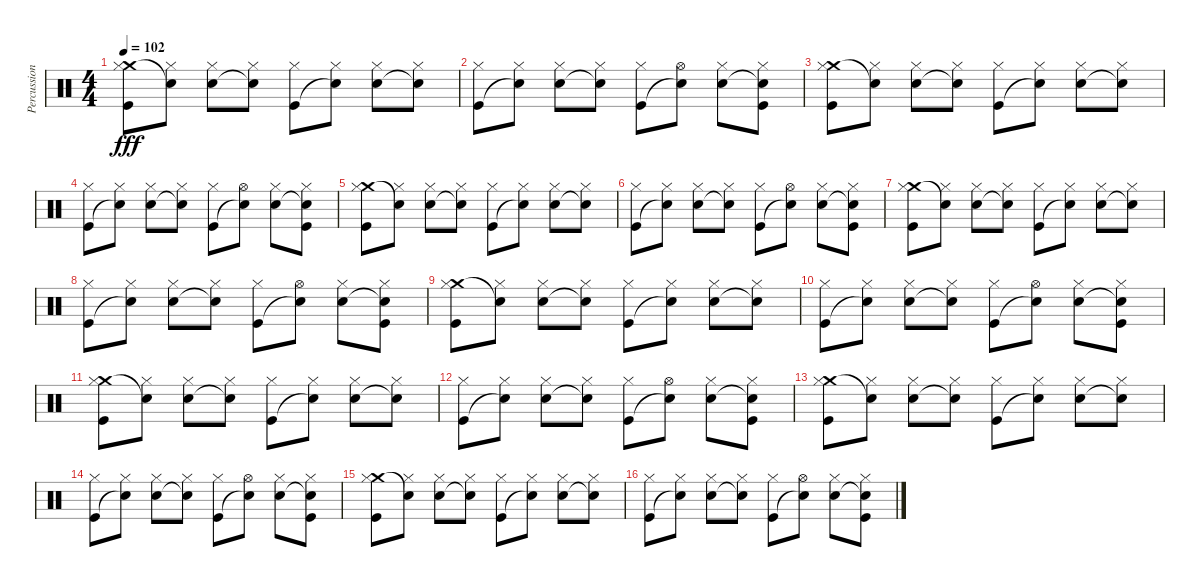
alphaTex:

\track ("Percussion" "Percussion") {instrument percussion}
\staff {score}
\articulation defaults
\ts (4 4)
\tempo 102
\clef neutral
\ks aminor
("Crash medium (hit)" "Hi-Hat (closed)" "Kick (hit)").8{dy fff} ("Hi-Hat (closed)" "Snare (hit)"{t}).8 ("Hi-Hat (closed)" "Electric Snare (hit)").8 ("Hi-Hat (closed)" "Electric Snare (hit)"{t}).8 ("Hi-Hat (closed)" "Kick (hit)").8 ("Hi-Hat (closed)" "Snare (hit)"{t}).8 ("Hi-Hat (closed)" "Electric Snare (hit)").8 ("Hi-Hat (closed)" "Snare (hit)"{t}).8 |
("Hi-Hat (closed)" "Kick (hit)").8 ("Hi-Hat (closed)" "Snare (hit)"{t}).8 ("Hi-Hat (closed)" "Electric Snare (hit)").8 ("Hi-Hat (closed)" "Electric Snare (hit)"{t}).8 ("Hi-Hat (closed)" "Kick (hit)").8 ("Hi-Hat (open)" "Snare (hit)"{t}).8 ("Hi-Hat (closed)" "Electric Snare (hit)").8 ("Hi-Hat (closed)" "Snare (hit)"{t} "Kick (hit)").8 |
("Crash medium (hit)" "Hi-Hat (closed)" "Kick (hit)").8 ("Hi-Hat (closed)" "Snare (hit)"{t}).8 ("Hi-Hat (closed)" "Electric Snare (hit)").8 ("Hi-Hat (closed)" "Electric Snare (hit)"{t}).8 ("Hi-Hat (closed)" "Kick (hit)").8 ("Hi-Hat (closed)" "Snare (hit)"{t}).8 ("Hi-Hat (closed)" "Electric Snare (hit)").8 ("Hi-Hat (closed)" "Snare (hit)"{t}).8 |
("Hi-Hat (closed)" "Kick (hit)").8 ("Hi-Hat (closed)" "Snare (hit)"{t}).8 ("Hi-Hat (closed)" "Electric Snare (hit)").8 ("Hi-Hat (closed)" "Electric Snare (hit)"{t}).8 ("Hi-Hat (closed)" "Kick (hit)").8 ("Hi-Hat (open)" "Snare (hit)"{t}).8 ("Hi-Hat (closed)" "Electric Snare (hit)").8 ("Hi-Hat (closed)" "Snare (hit)"{t} "Kick (hit)").8 |
("Crash medium (hit)" "Hi-Hat (closed)" "Kick (hit)").8 ("Hi-Hat (closed)" "Snare (hit)"{t}).8 ("Hi-Hat (closed)" "Electric Snare (hit)").8 ("Hi-Hat (closed)" "Electric Snare (hit)"{t}).8 ("Hi-Hat (closed)" "Kick (hit)").8 ("Hi-Hat (closed)" "Snare (hit)"{t}).8 ("Hi-Hat (closed)" "Electric Snare (hit)").8 ("Hi-Hat (closed)" "Snare (hit)"{t}).8 |
("Hi-Hat (closed)" "Kick (hit)").8 ("Hi-Hat (closed)" "Snare (hit)"{t}).8 ("Hi-Hat (closed)" "Electric Snare (hit)").8 ("Hi-Hat (closed)" "Electric Snare (hit)"{t}).8 ("Hi-Hat (closed)" "Kick (hit)").8 ("Hi-Hat (open)" "Snare (hit)"{t}).8 ("Hi-Hat (closed)" "Electric Snare (hit)").8 ("Hi-Hat (closed)" "Snare (hit)"{t} "Kick (hit)").8 |
("Crash medium (hit)" "Hi-Hat (closed)" "Kick (hit)").8 ("Hi-Hat (closed)" "Snare (hit)"{t}).8 ("Hi-Hat (closed)" "Electric Snare (hit)").8 ("Hi-Hat (closed)" "Electric Snare (hit)"{t}).8 ("Hi-Hat (closed)" "Kick (hit)").8 ("Hi-Hat (closed)" "Snare (hit)"{t}).8 ("Hi-Hat (closed)" "Electric Snare (hit)").8 ("Hi-Hat (closed)" "Snare (hit)"{t}).8 |
("Hi-Hat (closed)" "Kick (hit)").8 ("Hi-Hat (closed)" "Snare (hit)"{t}).8 ("Hi-Hat (closed)" "Electric Snare (hit)").8 ("Hi-Hat (closed)" "Electric Snare (hit)"{t}).8 ("Hi-Hat (closed)" "Kick (hit)").8 ("Hi-Hat (open)" "Snare (hit)"{t}).8 ("Hi-Hat (closed)" "Electric Snare (hit)").8 ("Hi-Hat (closed)" "Snare (hit)"{t} "Kick (hit)").8 |
("Crash medium (hit)" "Hi-Hat (closed)" "Kick (hit)").8 ("Hi-Hat (closed)" "Snare (hit)"{t}).8 ("Hi-Hat (closed)" "Electric Snare (hit)").8 ("Hi-Hat (closed)" "Electric Snare (hit)"{t}).8 ("Hi-Hat (closed)" "Kick (hit)").8 ("Hi-Hat (closed)" "Snare (hit)"{t}).8 ("Hi-Hat (closed)" "Electric Snare (hit)").8 ("Hi-Hat (closed)" "Snare (hit)"{t}).8 |
("Hi-Hat (closed)" "Kick (hit)").8 ("Hi-Hat (closed)" "Snare (hit)"{t}).8 ("Hi-Hat (closed)" "Electric Snare (hit)").8 ("Hi-Hat (closed)" "Electric Snare (hit)"{t}).8 ("Hi-Hat (closed)" "Kick (hit)").8 ("Hi-Hat (open)" "Snare (hit)"{t}).8 ("Hi-Hat (closed)" "Electric Snare (hit)").8 ("Hi-Hat (closed)" "Snare (hit)"{t} "Kick (hit)").8 |
("Crash medium (hit)" "Hi-Hat (closed)" "Kick (hit)").8 ("Hi-Hat (closed)" "Snare (hit)"{t}).8 ("Hi-Hat (closed)" "Electric Snare (hit)").8 ("Hi-Hat (closed)" "Electric Snare (hit)"{t}).8 ("Hi-Hat (closed)" "Kick (hit)").8 ("Hi-Hat (closed)" "Snare (hit)"{t}).8 ("Hi-Hat (closed)" "Electric Snare (hit)").8 ("Hi-Hat (closed)" "Snare (hit)"{t}).8 |
("Hi-Hat (closed)" "Kick (hit)").8 ("Hi-Hat (closed)" "Snare (hit)"{t}).8 ("Hi-Hat (closed)" "Electric Snare (hit)").8 ("Hi-Hat (closed)" "Electric Snare (hit)"{t}).8 ("Hi-Hat (closed)" "Kick (hit)").8 ("Hi-Hat (open)" "Snare (hit)"{t}).8 ("Hi-Hat (closed)" "Electric Snare (hit)").8 ("Hi-Hat (closed)" "Snare (hit)"{t} "Kick (hit)").8 |
("Crash medium (hit)" "Hi-Hat (closed)" "Kick (hit)").8 ("Hi-Hat (closed)" "Snare (hit)"{t}).8 ("Hi-Hat (closed)" "Electric Snare (hit)").8 ("Hi-Hat (closed)" "Electric Snare (hit)"{t}).8 ("Hi-Hat (closed)" "Kick (hit)").8 ("Hi-Hat (closed)" "Snare (hit)"{t}).8 ("Hi-Hat (closed)" "Electric Snare (hit)").8 ("Hi-Hat (closed)" "Snare (hit)"{t}).8 |
("Hi-Hat (closed)" "Kick (hit)").8 ("Hi-Hat (closed)" "Snare (hit)"{t}).8 ("Hi-Hat (closed)" "Electric Snare (hit)").8 ("Hi-Hat (closed)" "Electric Snare (hit)"{t}).8 ("Hi-Hat (closed)" "Kick (hit)").8 ("Hi-Hat (open)" "Snare (hit)"{t}).8 ("Hi-Hat (closed)" "Electric Snare (hit)").8 ("Hi-Hat (closed)" "Snare (hit)"{t} "Kick (hit)").8 |
("Crash medium (hit)" "Hi-Hat (closed)" "Kick (hit)").8 ("Hi-Hat (closed)" "Snare (hit)"{t}).8 ("Hi-Hat (closed)" "Electric Snare (hit)").8 ("Hi-Hat (closed)" "Electric Snare (hit)"{t}).8 ("Hi-Hat (closed)" "Kick (hit)").8 ("Hi-Hat (closed)" "Snare (hit)"{t}).8 ("Hi-Hat (closed)" "Electric Snare (hit)").8 ("Hi-Hat (closed)" "Snare (hit)"{t}).8 |
("Hi-Hat (closed)" "Kick (hit)").8 ("Hi-Hat (closed)" "Snare (hit)"{t}).8 ("Hi-Hat (closed)" "Electric Snare (hit)").8 ("Hi-Hat (closed)" "Electric Snare (hit)"{t}).8 ("Hi-Hat (closed)" "Kick (hit)").8 ("Hi-Hat (open)" "Snare (hit)"{t}).8 ("Hi-Hat (closed)" "Electric Snare (hit)").8 ("Hi-Hat (closed)" "Snare (hit)"{t} "Kick (hit)").8
